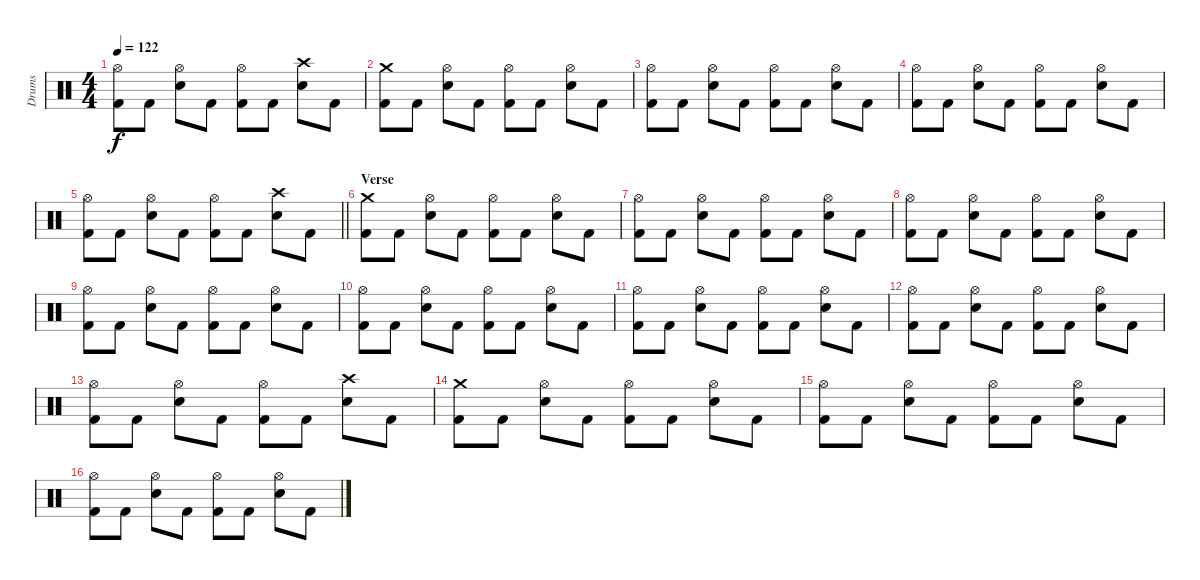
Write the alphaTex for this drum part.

\track ("Drums" "Drums") {instrument percussion}
\staff {score}
\articulation defaults
\ts (4 4)
\tempo 122
\clef neutral
\ks c
("Hi-Hat (open)" "Kick (hit) 2").8{dy f} "Kick (hit) 2".8 ("Hi-Hat (open)" "Electric Snare (hit)").8 "Kick (hit) 2".8 ("Hi-Hat (open)" "Kick (hit) 2").8 "Kick (hit) 2".8 ("Crash high (hit)" "Electric Snare (hit)").8 "Kick (hit) 2".8 |
("Crash medium (hit)" "Kick (hit) 2").8 "Kick (hit) 2".8 ("Hi-Hat (open)" "Electric Snare (hit)").8 "Kick (hit) 2".8 ("Hi-Hat (open)" "Kick (hit) 2").8 "Kick (hit) 2".8 ("Hi-Hat (open)" "Electric Snare (hit)").8 "Kick (hit) 2".8 |
("Hi-Hat (open)" "Kick (hit) 2").8 "Kick (hit) 2".8 ("Hi-Hat (open)" "Electric Snare (hit)").8 "Kick (hit) 2".8 ("Hi-Hat (open)" "Kick (hit) 2").8 "Kick (hit) 2".8 ("Hi-Hat (open)" "Electric Snare (hit)").8 "Kick (hit) 2".8 |
("Hi-Hat (open)" "Kick (hit) 2").8 "Kick (hit) 2".8 ("Hi-Hat (open)" "Electric Snare (hit)").8 "Kick (hit) 2".8 ("Hi-Hat (open)" "Kick (hit) 2").8 "Kick (hit) 2".8 ("Hi-Hat (open)" "Electric Snare (hit)").8 "Kick (hit) 2".8 |
\barLineRight lightlight
("Hi-Hat (open)" "Kick (hit) 2").8 "Kick (hit) 2".8 ("Hi-Hat (open)" "Electric Snare (hit)").8 "Kick (hit) 2".8 ("Hi-Hat (open)" "Kick (hit) 2").8 "Kick (hit) 2".8 ("Crash high (hit)" "Electric Snare (hit)").8 "Kick (hit) 2".8 |
\section ("" "Verse")
("Crash medium (hit)" "Kick (hit) 2").8 "Kick (hit) 2".8 ("Hi-Hat (open)" "Electric Snare (hit)").8 "Kick (hit) 2".8 ("Hi-Hat (open)" "Kick (hit) 2").8 "Kick (hit) 2".8 ("Hi-Hat (open)" "Electric Snare (hit)").8 "Kick (hit) 2".8 |
("Hi-Hat (open)" "Kick (hit) 2").8 "Kick (hit) 2".8 ("Hi-Hat (open)" "Electric Snare (hit)").8 "Kick (hit) 2".8 ("Hi-Hat (open)" "Kick (hit) 2").8 "Kick (hit) 2".8 ("Hi-Hat (open)" "Electric Snare (hit)").8 "Kick (hit) 2".8 |
("Hi-Hat (open)" "Kick (hit) 2").8 "Kick (hit) 2".8 ("Hi-Hat (open)" "Electric Snare (hit)").8 "Kick (hit) 2".8 ("Hi-Hat (open)" "Kick (hit) 2").8 "Kick (hit) 2".8 ("Hi-Hat (open)" "Electric Snare (hit)").8 "Kick (hit) 2".8 |
("Hi-Hat (open)" "Kick (hit) 2").8 "Kick (hit) 2".8 ("Hi-Hat (open)" "Electric Snare (hit)").8 "Kick (hit) 2".8 ("Hi-Hat (open)" "Kick (hit) 2").8 "Kick (hit) 2".8 ("Hi-Hat (open)" "Electric Snare (hit)").8 "Kick (hit) 2".8 |
("Hi-Hat (open)" "Kick (hit) 2").8 "Kick (hit) 2".8 ("Hi-Hat (open)" "Electric Snare (hit)").8 "Kick (hit) 2".8 ("Hi-Hat (open)" "Kick (hit) 2").8 "Kick (hit) 2".8 ("Hi-Hat (open)" "Electric Snare (hit)").8 "Kick (hit) 2".8 |
("Hi-Hat (open)" "Kick (hit) 2").8 "Kick (hit) 2".8 ("Hi-Hat (open)" "Electric Snare (hit)").8 "Kick (hit) 2".8 ("Hi-Hat (open)" "Kick (hit) 2").8 "Kick (hit) 2".8 ("Hi-Hat (open)" "Electric Snare (hit)").8 "Kick (hit) 2".8 |
("Hi-Hat (open)" "Kick (hit) 2").8 "Kick (hit) 2".8 ("Hi-Hat (open)" "Electric Snare (hit)").8 "Kick (hit) 2".8 ("Hi-Hat (open)" "Kick (hit) 2").8 "Kick (hit) 2".8 ("Hi-Hat (open)" "Electric Snare (hit)").8 "Kick (hit) 2".8 |
("Hi-Hat (open)" "Kick (hit) 2").8 "Kick (hit) 2".8 ("Hi-Hat (open)" "Electric Snare (hit)").8 "Kick (hit) 2".8 ("Hi-Hat (open)" "Kick (hit) 2").8 "Kick (hit) 2".8 ("Crash high (hit)" "Electric Snare (hit)").8 "Kick (hit) 2".8 |
("Crash medium (hit)" "Kick (hit) 2").8 "Kick (hit) 2".8 ("Hi-Hat (open)" "Electric Snare (hit)").8 "Kick (hit) 2".8 ("Hi-Hat (open)" "Kick (hit) 2").8 "Kick (hit) 2".8 ("Hi-Hat (open)" "Electric Snare (hit)").8 "Kick (hit) 2".8 |
("Hi-Hat (open)" "Kick (hit) 2").8 "Kick (hit) 2".8 ("Hi-Hat (open)" "Electric Snare (hit)").8 "Kick (hit) 2".8 ("Hi-Hat (open)" "Kick (hit) 2").8 "Kick (hit) 2".8 ("Hi-Hat (open)" "Electric Snare (hit)").8 "Kick (hit) 2".8 |
("Hi-Hat (open)" "Kick (hit) 2").8 "Kick (hit) 2".8 ("Hi-Hat (open)" "Electric Snare (hit)").8 "Kick (hit) 2".8 ("Hi-Hat (open)" "Kick (hit) 2").8 "Kick (hit) 2".8 ("Hi-Hat (open)" "Electric Snare (hit)").8 "Kick (hit) 2".8
